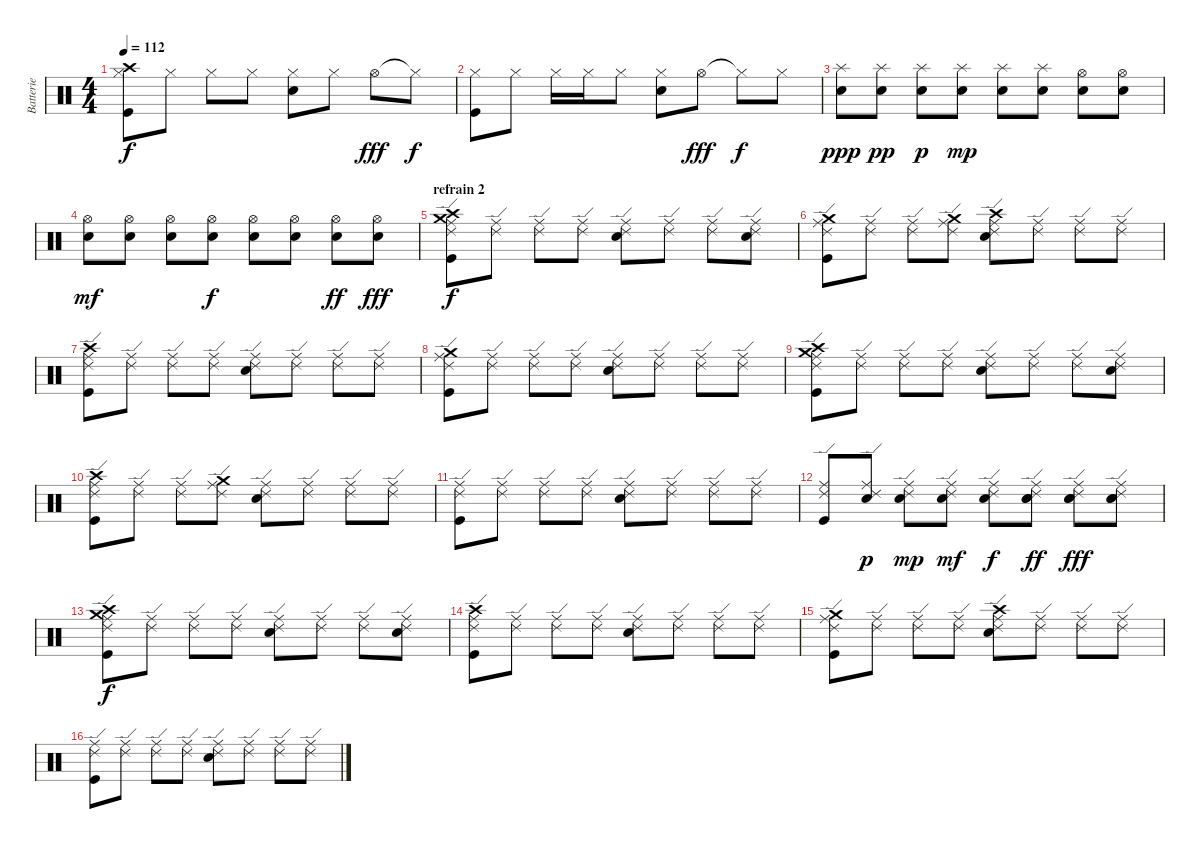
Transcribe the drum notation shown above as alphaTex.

\track ("Batterie" "Batterie") {instrument percussion}
\staff {score}
\articulation defaults
\ts (4 4)
\tempo 112
\clef neutral
\ks c
("Hi-Hat (closed)" "Crash high (hit)" "Kick (hit)").8{dy f} "Hi-Hat (closed)".8 "Hi-Hat (closed)".8 "Hi-Hat (closed)".8 ("Hi-Hat (closed)" "Snare (hit) 2").8 "Hi-Hat (closed)".8 "Hi-Hat (open)".8{dy fff} "Hi-Hat (closed)"{t}.8{dy f} |
("Hi-Hat (closed)" "Kick (hit)").8 "Hi-Hat (closed)".8 "Hi-Hat (closed)".16 "Hi-Hat (closed)".16 "Hi-Hat (closed)".8 ("Hi-Hat (closed)" "Snare (hit) 2").8 "Hi-Hat (open)".8{dy fff} "Hi-Hat (closed)"{t}.8{dy f} "Hi-Hat (closed)".8 |
("Splash (hit)" "Snare (hit) 2").8{dy ppp} ("Splash (hit)" "Snare (hit) 2").8{dy pp} ("Splash (hit)" "Snare (hit) 2").8{dy p} ("Splash (hit)" "Snare (hit) 2").8{dy mp} ("Splash (hit)" "Snare (hit) 2").8 ("Splash (hit)" "Snare (hit) 2").8 ("Hi-Hat (open)" "Snare (hit) 2").8 ("Hi-Hat (open)" "Snare (hit) 2").8 |
("Hi-Hat (open)" "Snare (hit) 2").8{dy mf} ("Hi-Hat (open)" "Snare (hit) 2").8 ("Hi-Hat (open)" "Snare (hit) 2").8 ("Hi-Hat (open)" "Snare (hit) 2").8{dy f} ("Hi-Hat (open)" "Snare (hit) 2").8 ("Hi-Hat (open)" "Snare (hit) 2").8 ("Hi-Hat (open)" "Snare (hit) 2").8{dy ff} ("Hi-Hat (open)" "Snare (hit) 2").8{dy fff} |
\section ("" "refrain 2")
("Crash high (hit)" "Crash medium (hit)" "Ride (middle)" "Ride (edge) 2" "Kick (hit)").8{dy f} ("Ride (middle)" "Ride (edge) 2").8 ("Ride (middle)" "Ride (edge) 2").8 ("Ride (middle)" "Ride (edge) 2").8 ("Ride (middle)" "Ride (edge) 2" "Snare (hit) 2").8 ("Ride (middle)" "Ride (edge) 2").8 ("Ride (middle)" "Ride (edge) 2").8 ("Ride (middle)" "Ride (edge) 2" "Snare (hit) 2").8 |
("Ride (middle)" "Crash medium (hit)" "Ride (edge) 2" "Kick (hit)").8 ("Ride (middle)" "Ride (edge) 2").8 ("Ride (middle)" "Ride (edge) 2").8 ("Ride (middle)" "Crash medium (hit)" "Ride (edge) 2").8 ("Ride (middle)" "Crash high (hit)" "Ride (edge) 2" "Snare (hit) 2").8 ("Ride (middle)" "Ride (edge) 2").8 ("Ride (middle)" "Ride (edge) 2").8 ("Ride (middle)" "Ride (edge) 2").8 |
("Ride (middle)" "Crash high (hit)" "Ride (edge) 2" "Kick (hit)").8 ("Ride (middle)" "Ride (edge) 2").8 ("Ride (middle)" "Ride (edge) 2").8 ("Ride (middle)" "Ride (edge) 2").8 ("Ride (middle)" "Ride (edge) 2" "Snare (hit) 2").8 ("Ride (middle)" "Ride (edge) 2").8 ("Ride (middle)" "Ride (edge) 2").8 ("Ride (middle)" "Ride (edge) 2").8 |
("Ride (middle)" "Crash medium (hit)" "Ride (edge) 2" "Kick (hit)").8 ("Ride (middle)" "Ride (edge) 2").8 ("Ride (middle)" "Ride (edge) 2").8 ("Ride (middle)" "Ride (edge) 2").8 ("Ride (middle)" "Ride (edge) 2" "Snare (hit) 2").8 ("Ride (middle)" "Ride (edge) 2").8 ("Ride (middle)" "Ride (edge) 2").8 ("Ride (middle)" "Ride (edge) 2").8 |
("Crash high (hit)" "Crash medium (hit)" "Ride (middle)" "Ride (edge) 2" "Kick (hit)").8 ("Ride (middle)" "Ride (edge) 2").8 ("Ride (middle)" "Ride (edge) 2").8 ("Ride (middle)" "Ride (edge) 2").8 ("Ride (middle)" "Ride (edge) 2" "Snare (hit) 2").8 ("Ride (middle)" "Ride (edge) 2").8 ("Ride (middle)" "Ride (edge) 2").8 ("Ride (middle)" "Ride (edge) 2" "Snare (hit) 2").8 |
("Ride (middle)" "Crash high (hit)" "Ride (edge) 2" "Kick (hit)").8 ("Ride (middle)" "Ride (edge) 2").8 ("Ride (middle)" "Ride (edge) 2").8 ("Ride (middle)" "Crash medium (hit)" "Ride (edge) 2").8 ("Ride (middle)" "Ride (edge) 2" "Snare (hit) 2").8 ("Ride (middle)" "Ride (edge) 2").8 ("Ride (middle)" "Ride (edge) 2").8 ("Ride (middle)" "Ride (edge) 2").8 |
("Ride (middle)" "Ride (edge) 2" "Kick (hit)").8 ("Ride (middle)" "Ride (edge) 2").8 ("Ride (middle)" "Ride (edge) 2").8 ("Ride (middle)" "Ride (edge) 2").8 ("Ride (middle)" "Ride (edge) 2" "Snare (hit) 2").8 ("Ride (middle)" "Ride (edge) 2").8 ("Ride (middle)" "Ride (edge) 2").8 ("Ride (middle)" "Ride (edge) 2").8 |
("Ride (middle)" "Ride (edge) 2" "Kick (hit)").8 ("Ride (middle)" "Ride (edge) 2" "Snare (hit) 2").8{dy p} ("Ride (middle)" "Ride (edge) 2" "Snare (hit) 2").8{dy mp} ("Ride (middle)" "Ride (edge) 2" "Snare (hit) 2").8{dy mf} ("Ride (middle)" "Ride (edge) 2" "Snare (hit) 2").8{dy f} ("Ride (middle)" "Ride (edge) 2" "Snare (hit) 2" "Snare (hit) 2").8{dy ff} ("Ride (middle)" "Ride (edge) 2" "Snare (hit) 2" "Snare (hit) 2").8{dy fff} ("Ride (middle)" "Ride (edge) 2" "Snare (hit) 2" "Snare (hit) 2").8 |
("Crash high (hit)" "Crash medium (hit)" "Ride (middle)" "Ride (edge) 2" "Kick (hit)").8{dy f} ("Ride (middle)" "Ride (edge) 2").8 ("Ride (middle)" "Ride (edge) 2").8 ("Ride (middle)" "Ride (edge) 2").8 ("Ride (middle)" "Ride (edge) 2" "Snare (hit) 2").8 ("Ride (middle)" "Ride (edge) 2").8 ("Ride (middle)" "Ride (edge) 2").8 ("Ride (middle)" "Ride (edge) 2" "Snare (hit) 2").8 |
("Crash high (hit)" "Ride (middle)" "Ride (edge) 2" "Kick (hit)").8 ("Ride (middle)" "Ride (edge) 2").8 ("Ride (middle)" "Ride (edge) 2").8 ("Ride (middle)" "Ride (edge) 2").8 ("Ride (middle)" "Ride (edge) 2" "Snare (hit) 2").8 ("Ride (middle)" "Ride (edge) 2").8 ("Ride (middle)" "Ride (edge) 2").8 ("Ride (middle)" "Ride (edge) 2").8 |
("Ride (middle)" "Crash medium (hit)" "Ride (edge) 2" "Kick (hit)").8 ("Ride (middle)" "Ride (edge) 2").8 ("Ride (middle)" "Ride (edge) 2").8 ("Ride (middle)" "Ride (edge) 2").8 ("Ride (middle)" "Crash high (hit)" "Ride (edge) 2" "Snare (hit) 2").8 ("Ride (middle)" "Ride (edge) 2").8 ("Ride (middle)" "Ride (edge) 2").8 ("Ride (middle)" "Ride (edge) 2").8 |
("Ride (middle)" "Ride (edge) 2" "Kick (hit)").8 ("Ride (middle)" "Ride (edge) 2").8 ("Ride (middle)" "Ride (edge) 2").8 ("Ride (middle)" "Ride (edge) 2").8 ("Ride (middle)" "Ride (edge) 2" "Snare (hit) 2").8 ("Ride (middle)" "Ride (edge) 2").8 ("Ride (middle)" "Ride (edge) 2").8 ("Ride (middle)" "Ride (edge) 2").8
